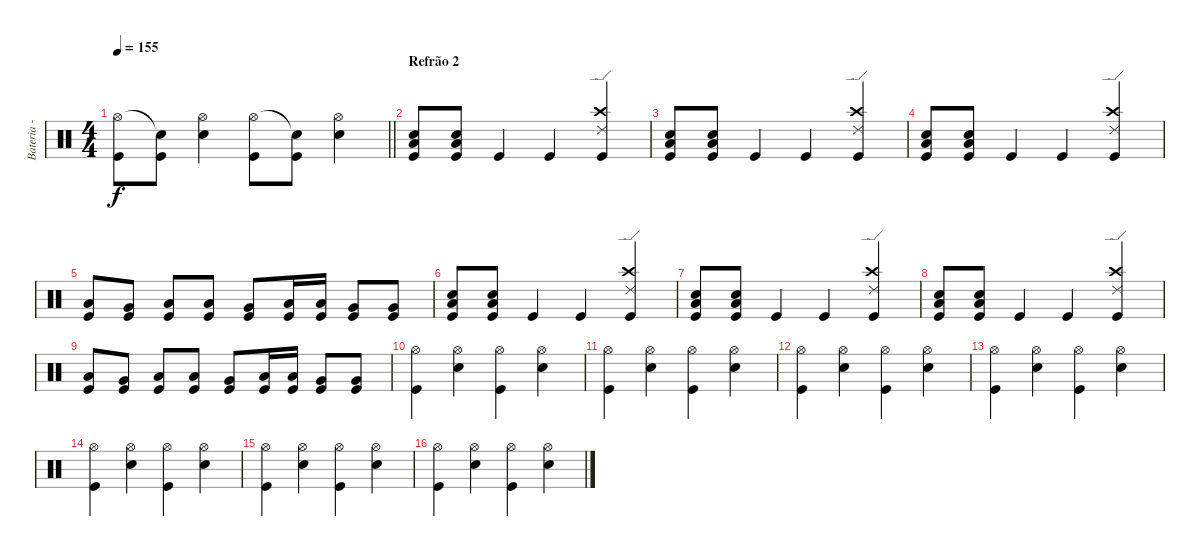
\track ("Bateria - Craig Nunumacher" "Bateria - ") {instrument percussion}
\staff {score}
\articulation defaults
\ts (4 4)
\tempo 155
\clef neutral
\barLineRight lightlight
\ks c
("Hi-Hat (open)" "Kick (hit)").8{dy f} ("Snare (hit)"{t} "Kick (hit)").8 ("Hi-Hat (open)" "Electric Snare (hit)").4 ("Hi-Hat (open)" "Kick (hit)").8 ("Snare (hit)"{t} "Kick (hit)").8 ("Hi-Hat (open)" "Electric Snare (hit)").4 |
\section ("" "Refrão 2")
("Electric Snare (hit)" "Low Floor Tom (hit)" "Kick (hit)").8 ("Electric Snare (hit)" "Low Floor Tom (hit)" "Kick (hit)").8 "Kick (hit)".4 "Kick (hit)".4 ("Crash high (hit)" "Ride (edge) 2" "Kick (hit)").4 |
("Electric Snare (hit)" "Low Floor Tom (hit)" "Kick (hit)").8 ("Electric Snare (hit)" "Low Floor Tom (hit)" "Kick (hit)").8 "Kick (hit)".4 "Kick (hit)".4 ("Crash high (hit)" "Ride (edge) 2" "Kick (hit)").4 |
("Electric Snare (hit)" "Low Floor Tom (hit)" "Kick (hit)").8 ("Electric Snare (hit)" "Low Floor Tom (hit)" "Kick (hit)").8 "Kick (hit)".4 "Kick (hit)".4 ("Crash high (hit)" "Ride (edge) 2" "Kick (hit)").4 |
("Low Tom (hit)" "Kick (hit)").8 ("Very Low Tom (hit)" "Kick (hit)").8 ("Low Floor Tom (hit)" "Kick (hit)").8 ("Low Tom (hit)" "Kick (hit)").8 ("Very Low Tom (hit)" "Kick (hit)").8 ("Low Floor Tom (hit)" "Kick (hit)").16 ("Low Floor Tom (hit)" "Kick (hit)").16 ("Very Low Tom (hit)" "Kick (hit)").8 ("Very Low Tom (hit)" "Kick (hit)").8 |
("Electric Snare (hit)" "Low Floor Tom (hit)" "Kick (hit)").8 ("Electric Snare (hit)" "Low Floor Tom (hit)" "Kick (hit)").8 "Kick (hit)".4 "Kick (hit)".4 ("Crash high (hit)" "Ride (edge) 2" "Kick (hit)").4 |
("Electric Snare (hit)" "Low Floor Tom (hit)" "Kick (hit)").8 ("Electric Snare (hit)" "Low Floor Tom (hit)" "Kick (hit)").8 "Kick (hit)".4 "Kick (hit)".4 ("Crash high (hit)" "Ride (edge) 2" "Kick (hit)").4 |
("Electric Snare (hit)" "Low Floor Tom (hit)" "Kick (hit)").8 ("Electric Snare (hit)" "Low Floor Tom (hit)" "Kick (hit)").8 "Kick (hit)".4 "Kick (hit)".4 ("Crash high (hit)" "Ride (edge) 2" "Kick (hit)").4 |
("Low Tom (hit)" "Kick (hit)").8 ("Very Low Tom (hit)" "Kick (hit)").8 ("Low Floor Tom (hit)" "Kick (hit)").8 ("Low Tom (hit)" "Kick (hit)").8 ("Very Low Tom (hit)" "Kick (hit)").8 ("Low Floor Tom (hit)" "Kick (hit)").16 ("Low Floor Tom (hit)" "Kick (hit)").16 ("Very Low Tom (hit)" "Kick (hit)").8 ("Very Low Tom (hit)" "Kick (hit)").8 |
("Hi-Hat (open)" "Kick (hit)").4 ("Hi-Hat (open)" "Electric Snare (hit)").4 ("Hi-Hat (open)" "Kick (hit)").4 ("Hi-Hat (open)" "Electric Snare (hit)").4 |
("Hi-Hat (open)" "Kick (hit)").4 ("Hi-Hat (open)" "Electric Snare (hit)").4 ("Hi-Hat (open)" "Kick (hit)").4 ("Hi-Hat (open)" "Electric Snare (hit)").4 |
("Hi-Hat (open)" "Kick (hit)").4 ("Hi-Hat (open)" "Electric Snare (hit)").4 ("Hi-Hat (open)" "Kick (hit)").4 ("Hi-Hat (open)" "Electric Snare (hit)").4 |
("Hi-Hat (open)" "Kick (hit)").4 ("Hi-Hat (open)" "Electric Snare (hit)").4 ("Hi-Hat (open)" "Kick (hit)").4 ("Hi-Hat (open)" "Electric Snare (hit)").4 |
("Hi-Hat (open)" "Kick (hit)").4 ("Hi-Hat (open)" "Electric Snare (hit)").4 ("Hi-Hat (open)" "Kick (hit)").4 ("Hi-Hat (open)" "Electric Snare (hit)").4 |
("Hi-Hat (open)" "Kick (hit)").4 ("Hi-Hat (open)" "Electric Snare (hit)").4 ("Hi-Hat (open)" "Kick (hit)").4 ("Hi-Hat (open)" "Electric Snare (hit)").4 |
("Hi-Hat (open)" "Kick (hit)").4 ("Hi-Hat (open)" "Electric Snare (hit)").4 ("Hi-Hat (open)" "Kick (hit)").4 ("Hi-Hat (open)" "Electric Snare (hit)").4
